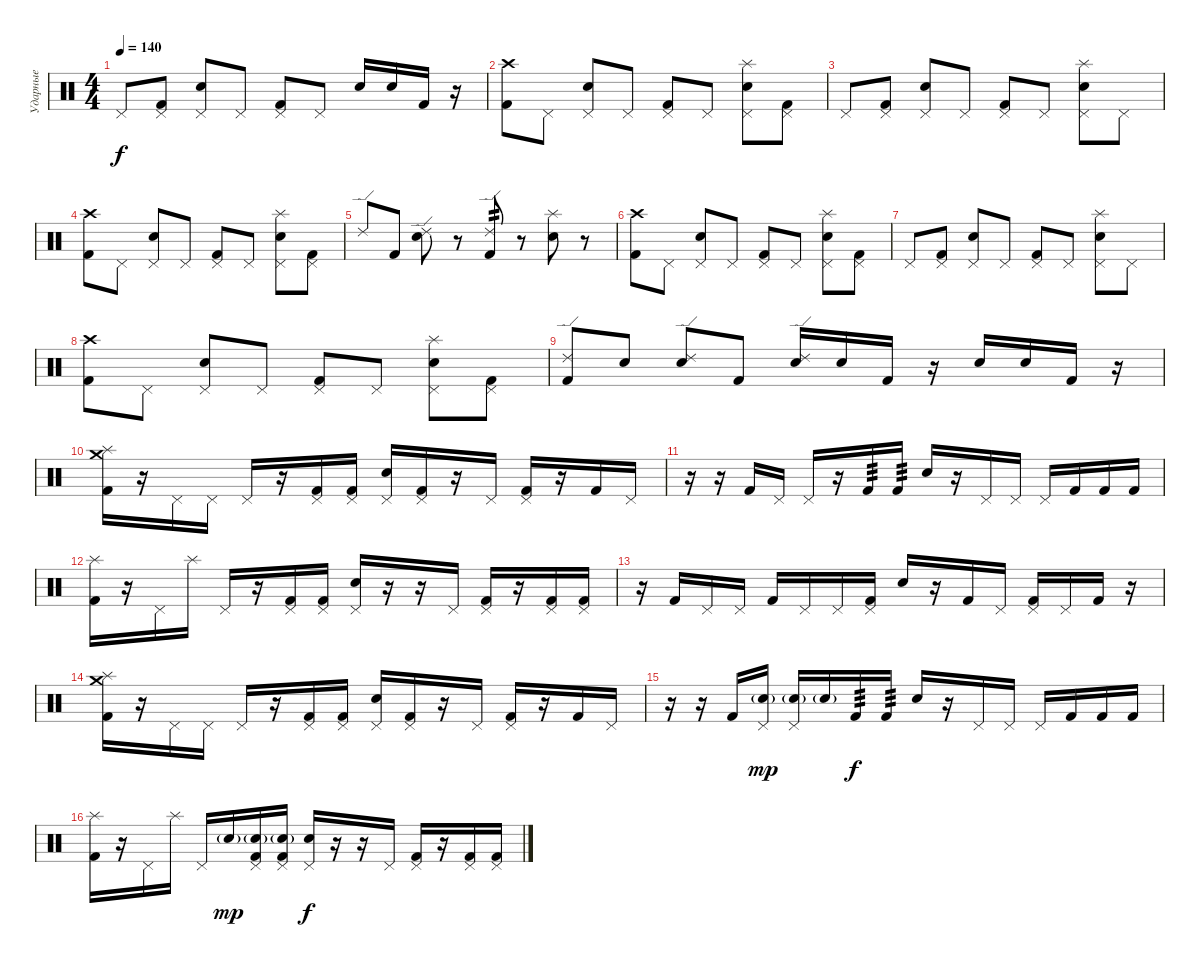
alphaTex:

\track ("Ударные" "Ударные") {instrument percussion}
\staff {score}
\articulation defaults
\ts (4 4)
\tempo 140
\clef neutral
\ks c "Pedal Hi-Hat (hit)".8{dy f}
("Pedal Hi-Hat (hit)" "Kick (hit) 2").8 ("Pedal Hi-Hat (hit)" "Electric Snare (hit)").8 "Pedal Hi-Hat (hit)".8 ("Pedal Hi-Hat (hit)" "Kick (hit) 2").8 "Pedal Hi-Hat (hit)".8 "Electric Snare (hit)".16 "Electric Snare (hit)".16 "Kick (hit) 2".16 r.16 |
("Crash high (hit)" "Kick (hit) 2").8 "Pedal Hi-Hat (hit)".8 ("Pedal Hi-Hat (hit)" "Electric Snare (hit)").8 "Pedal Hi-Hat (hit)".8 ("Pedal Hi-Hat (hit)" "Kick (hit) 2").8 "Pedal Hi-Hat (hit)".8 ("Splash (hit)" "Pedal Hi-Hat (hit)" "Electric Snare (hit)").8 ("Pedal Hi-Hat (hit)" "Kick (hit) 2").8 |
"Pedal Hi-Hat (hit)".8 ("Pedal Hi-Hat (hit)" "Kick (hit) 2").8 ("Pedal Hi-Hat (hit)" "Electric Snare (hit)").8 "Pedal Hi-Hat (hit)".8 ("Pedal Hi-Hat (hit)" "Kick (hit) 2").8 "Pedal Hi-Hat (hit)".8 ("Splash (hit)" "Pedal Hi-Hat (hit)" "Electric Snare (hit)").8 "Pedal Hi-Hat (hit)".8 |
("Crash high (hit)" "Kick (hit) 2").8 "Pedal Hi-Hat (hit)".8 ("Pedal Hi-Hat (hit)" "Electric Snare (hit)").8 "Pedal Hi-Hat (hit)".8 ("Pedal Hi-Hat (hit)" "Kick (hit) 2").8 "Pedal Hi-Hat (hit)".8 ("Splash (hit)" "Pedal Hi-Hat (hit)" "Electric Snare (hit)").8 ("Pedal Hi-Hat (hit)" "Kick (hit) 2").8 |
"Ride (edge) 2".8 "Kick (hit) 2".8 ("Ride (edge) 2" "Electric Snare (hit)").8 r.8 ("Ride (edge) 2" "Kick (hit) 2").8{tp 2} r.8 ("Splash (hit)" "Electric Snare (hit)").8 r.8 |
("Crash high (hit)" "Kick (hit) 2").8 "Pedal Hi-Hat (hit)".8 ("Pedal Hi-Hat (hit)" "Electric Snare (hit)").8 "Pedal Hi-Hat (hit)".8 ("Pedal Hi-Hat (hit)" "Kick (hit) 2").8 "Pedal Hi-Hat (hit)".8 ("Splash (hit)" "Pedal Hi-Hat (hit)" "Electric Snare (hit)").8 ("Pedal Hi-Hat (hit)" "Kick (hit) 2").8 |
"Pedal Hi-Hat (hit)".8 ("Pedal Hi-Hat (hit)" "Kick (hit) 2").8 ("Pedal Hi-Hat (hit)" "Electric Snare (hit)").8 "Pedal Hi-Hat (hit)".8 ("Pedal Hi-Hat (hit)" "Kick (hit) 2").8 "Pedal Hi-Hat (hit)".8 ("Splash (hit)" "Pedal Hi-Hat (hit)" "Electric Snare (hit)").8 "Pedal Hi-Hat (hit)".8 |
("Crash high (hit)" "Kick (hit) 2").8 "Pedal Hi-Hat (hit)".8 ("Pedal Hi-Hat (hit)" "Electric Snare (hit)").8 "Pedal Hi-Hat (hit)".8 ("Pedal Hi-Hat (hit)" "Kick (hit) 2").8 "Pedal Hi-Hat (hit)".8 ("Splash (hit)" "Pedal Hi-Hat (hit)" "Electric Snare (hit)").8 ("Pedal Hi-Hat (hit)" "Kick (hit) 2").8 |
("Ride (edge) 2" "Kick (hit) 2").8 "Electric Snare (hit)".8 ("Ride (edge) 2" "Electric Snare (hit)").8 "Kick (hit) 2".8 ("Ride (edge) 2" "Electric Snare (hit)").16 "Electric Snare (hit)".16 "Kick (hit) 2".16 r.16 "Electric Snare (hit)".16 "Electric Snare (hit)".16 "Kick (hit) 2".16 r.16 |
("Crash medium (hit)" "Splash (hit)" "Kick (hit) 2").16 r.16 "Pedal Hi-Hat (hit)".16 "Pedal Hi-Hat (hit)".16 "Pedal Hi-Hat (hit)".16 r.16 ("Pedal Hi-Hat (hit)" "Kick (hit) 2").16 ("Pedal Hi-Hat (hit)" "Kick (hit) 2").16 ("Pedal Hi-Hat (hit)" "Electric Snare (hit)").16 ("Pedal Hi-Hat (hit)" "Kick (hit) 2").16 r.16 "Pedal Hi-Hat (hit)".16 ("Pedal Hi-Hat (hit)" "Kick (hit) 2").16 r.16 "Kick (hit) 2".16 "Pedal Hi-Hat (hit)".16 |
r.16 r.16 "Kick (hit) 2".16 "Pedal Hi-Hat (hit)".16 "Pedal Hi-Hat (hit)".16 r.16 "Kick (hit) 2".16{tp 3} "Kick (hit) 2".16{tp 3} "Electric Snare (hit)".16 r.16 "Pedal Hi-Hat (hit)".16 "Pedal Hi-Hat (hit)".16 "Pedal Hi-Hat (hit)".16 "Kick (hit) 2".16 "Kick (hit) 2".16 "Kick (hit) 2".16 |
("Splash (hit)" "Kick (hit) 2").16 r.16 "Pedal Hi-Hat (hit)".16 "Splash (hit)".16 "Pedal Hi-Hat (hit)".16 r.16 ("Pedal Hi-Hat (hit)" "Kick (hit) 2").16 ("Pedal Hi-Hat (hit)" "Kick (hit) 2").16 ("Pedal Hi-Hat (hit)" "Electric Snare (hit)").16 r.16 r.16 "Pedal Hi-Hat (hit)".16 ("Pedal Hi-Hat (hit)" "Kick (hit) 2").16 r.16 ("Pedal Hi-Hat (hit)" "Kick (hit) 2").16 ("Pedal Hi-Hat (hit)" "Kick (hit) 2").16 |
r.16 "Kick (hit) 2".16 "Pedal Hi-Hat (hit)".16 "Pedal Hi-Hat (hit)".16 "Kick (hit) 2".16 "Pedal Hi-Hat (hit)".16 "Pedal Hi-Hat (hit)".16 ("Pedal Hi-Hat (hit)" "Kick (hit) 2").16 "Electric Snare (hit)".16 r.16 "Kick (hit) 2".16 "Pedal Hi-Hat (hit)".16 ("Pedal Hi-Hat (hit)" "Kick (hit) 2").16 "Pedal Hi-Hat (hit)".16 "Kick (hit) 2".16 r.16 |
("Crash medium (hit)" "Splash (hit)" "Kick (hit) 2").16 r.16 "Pedal Hi-Hat (hit)".16 "Pedal Hi-Hat (hit)".16 "Pedal Hi-Hat (hit)".16 r.16 ("Pedal Hi-Hat (hit)" "Kick (hit) 2").16 ("Pedal Hi-Hat (hit)" "Kick (hit) 2").16 ("Pedal Hi-Hat (hit)" "Electric Snare (hit)").16 ("Pedal Hi-Hat (hit)" "Kick (hit) 2").16 r.16 "Pedal Hi-Hat (hit)".16 ("Pedal Hi-Hat (hit)" "Kick (hit) 2").16 r.16 "Kick (hit) 2".16 "Pedal Hi-Hat (hit)".16 |
r.16 r.16 "Kick (hit) 2".16 ("Pedal Hi-Hat (hit)" "Electric Snare (hit)"{g}).16{dy mp} ("Pedal Hi-Hat (hit)" "Electric Snare (hit)"{g}).16 "Electric Snare (hit)"{g}.16 "Kick (hit) 2".16{tp 3 dy f} "Kick (hit) 2".16{tp 3} "Electric Snare (hit)".16 r.16 "Pedal Hi-Hat (hit)".16 "Pedal Hi-Hat (hit)".16 "Pedal Hi-Hat (hit)".16 "Kick (hit) 2".16 "Kick (hit) 2".16 "Kick (hit) 2".16 |
("Splash (hit)" "Kick (hit) 2").16 r.16 "Pedal Hi-Hat (hit)".16 "Splash (hit)".16 "Pedal Hi-Hat (hit)".16 "Electric Snare (hit)"{g}.16{dy mp} ("Pedal Hi-Hat (hit)" "Electric Snare (hit)"{g} "Kick (hit) 2").16 ("Pedal Hi-Hat (hit)" "Electric Snare (hit)"{g} "Kick (hit) 2").16 ("Pedal Hi-Hat (hit)" "Electric Snare (hit)").16{dy f} r.16 r.16 "Pedal Hi-Hat (hit)".16 ("Pedal Hi-Hat (hit)" "Kick (hit) 2").16 r.16 ("Pedal Hi-Hat (hit)" "Kick (hit) 2").16 ("Pedal Hi-Hat (hit)" "Kick (hit) 2").16
